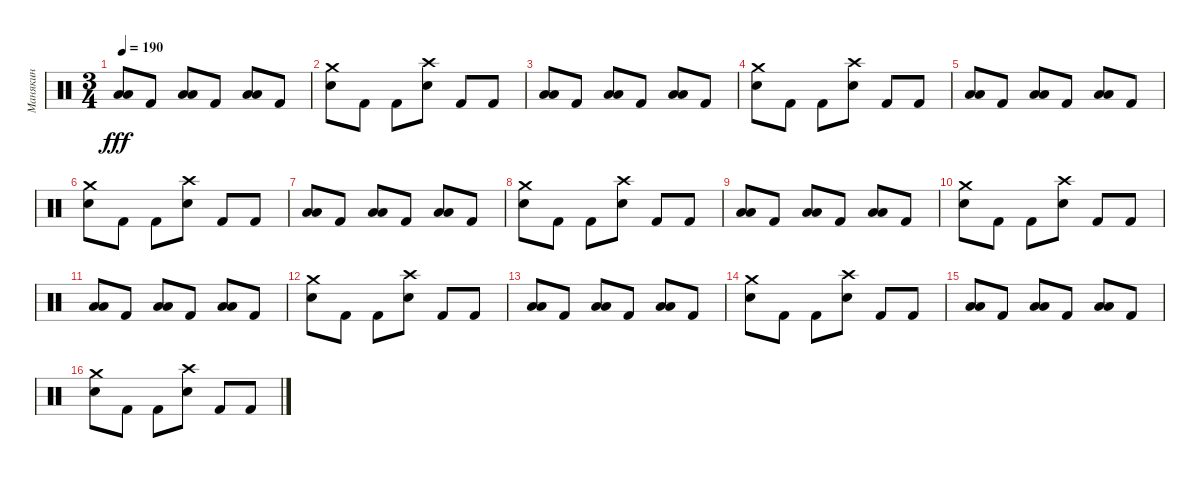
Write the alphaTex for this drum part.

\track ("Манякин" "Манякин") {instrument percussion}
\staff {score}
\articulation defaults
\ts (3 4)
\tempo 190
\clef neutral
\ks c
("Low Tom (hit)" "Low Floor Tom (hit)").8{dy fff} "Kick (hit) 2".8 ("Low Floor Tom (hit)" "Low Tom (hit)").8 "Kick (hit) 2".8 ("Low Floor Tom (hit)" "Low Tom (hit)").8 "Kick (hit) 2".8 |
("Snare (hit) 2" "Crash medium (hit)").8 "Kick (hit) 2".8 "Kick (hit) 2".8 ("Crash high (hit)" "Snare (hit) 2").8 "Kick (hit) 2".8 "Kick (hit) 2".8 |
("Low Tom (hit)" "Low Floor Tom (hit)").8 "Kick (hit) 2".8 ("Low Floor Tom (hit)" "Low Tom (hit)").8 "Kick (hit) 2".8 ("Low Floor Tom (hit)" "Low Tom (hit)").8 "Kick (hit) 2".8 |
("Snare (hit) 2" "Crash medium (hit)").8 "Kick (hit) 2".8 "Kick (hit) 2".8 ("Crash high (hit)" "Snare (hit) 2").8 "Kick (hit) 2".8 "Kick (hit) 2".8 |
("Low Tom (hit)" "Low Floor Tom (hit)").8 "Kick (hit) 2".8 ("Low Floor Tom (hit)" "Low Tom (hit)").8 "Kick (hit) 2".8 ("Low Floor Tom (hit)" "Low Tom (hit)").8 "Kick (hit) 2".8 |
("Snare (hit) 2" "Crash medium (hit)").8 "Kick (hit) 2".8 "Kick (hit) 2".8 ("Crash high (hit)" "Snare (hit) 2").8 "Kick (hit) 2".8 "Kick (hit) 2".8 |
("Low Tom (hit)" "Low Floor Tom (hit)").8 "Kick (hit) 2".8 ("Low Floor Tom (hit)" "Low Tom (hit)").8 "Kick (hit) 2".8 ("Low Floor Tom (hit)" "Low Tom (hit)").8 "Kick (hit) 2".8 |
("Snare (hit) 2" "Crash medium (hit)").8 "Kick (hit) 2".8 "Kick (hit) 2".8 ("Crash high (hit)" "Snare (hit) 2").8 "Kick (hit) 2".8 "Kick (hit) 2".8 |
("Low Tom (hit)" "Low Floor Tom (hit)").8 "Kick (hit) 2".8 ("Low Floor Tom (hit)" "Low Tom (hit)").8 "Kick (hit) 2".8 ("Low Floor Tom (hit)" "Low Tom (hit)").8 "Kick (hit) 2".8 |
("Snare (hit) 2" "Crash medium (hit)").8 "Kick (hit) 2".8 "Kick (hit) 2".8 ("Crash high (hit)" "Snare (hit) 2").8 "Kick (hit) 2".8 "Kick (hit) 2".8 |
("Low Tom (hit)" "Low Floor Tom (hit)").8 "Kick (hit) 2".8 ("Low Floor Tom (hit)" "Low Tom (hit)").8 "Kick (hit) 2".8 ("Low Floor Tom (hit)" "Low Tom (hit)").8 "Kick (hit) 2".8 |
("Snare (hit) 2" "Crash medium (hit)").8 "Kick (hit) 2".8 "Kick (hit) 2".8 ("Crash high (hit)" "Snare (hit) 2").8 "Kick (hit) 2".8 "Kick (hit) 2".8 |
("Low Tom (hit)" "Low Floor Tom (hit)").8 "Kick (hit) 2".8 ("Low Floor Tom (hit)" "Low Tom (hit)").8 "Kick (hit) 2".8 ("Low Floor Tom (hit)" "Low Tom (hit)").8 "Kick (hit) 2".8 |
("Snare (hit) 2" "Crash medium (hit)").8 "Kick (hit) 2".8 "Kick (hit) 2".8 ("Crash high (hit)" "Snare (hit) 2").8 "Kick (hit) 2".8 "Kick (hit) 2".8 |
("Low Tom (hit)" "Low Floor Tom (hit)").8 "Kick (hit) 2".8 ("Low Floor Tom (hit)" "Low Tom (hit)").8 "Kick (hit) 2".8 ("Low Floor Tom (hit)" "Low Tom (hit)").8 "Kick (hit) 2".8 |
("Snare (hit) 2" "Crash medium (hit)").8 "Kick (hit) 2".8 "Kick (hit) 2".8 ("Crash high (hit)" "Snare (hit) 2").8 "Kick (hit) 2".8 "Kick (hit) 2".8
